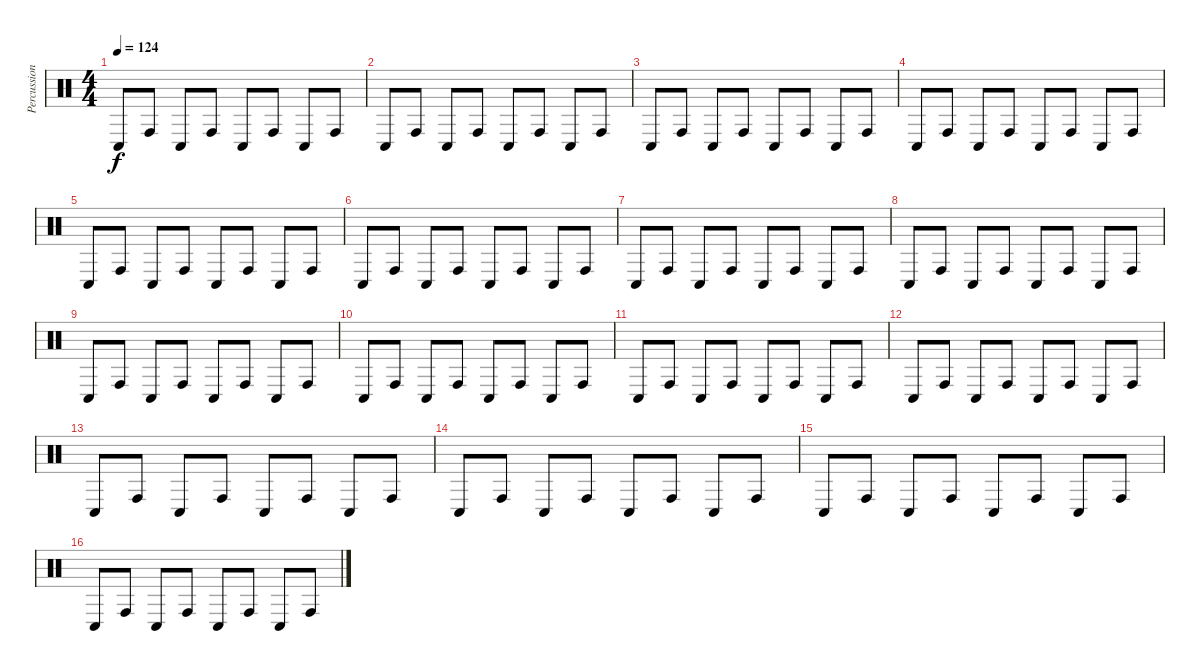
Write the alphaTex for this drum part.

\track ("Percussion" "Percussion") {instrument percussion}
\staff {score}
\articulation defaults
\ts (4 4)
\tempo 124
\clef neutral
\ks c "Conga low (hit)".8{dy f volume 10} "Conga high (hit)".8 "Conga low (hit)".8 "Conga high (hit)".8 "Conga low (hit)".8 "Conga high (hit)".8 "Conga low (hit)".8 "Conga high (hit)".8
|
"Conga low (hit)".8{volume 11} "Conga high (hit)".8 "Conga low (hit)".8 "Conga high (hit)".8 "Conga low (hit)".8 "Conga high (hit)".8 "Conga low (hit)".8 "Conga high (hit)".8 |
"Conga low (hit)".8{volume 10} "Conga high (hit)".8 "Conga low (hit)".8 "Conga high (hit)".8 "Conga low (hit)".8 "Conga high (hit)".8 "Conga low (hit)".8 "Conga high (hit)".8 |
"Conga low (hit)".8{volume 10} "Conga high (hit)".8 "Conga low (hit)".8 "Conga high (hit)".8 "Conga low (hit)".8 "Conga high (hit)".8 "Conga low (hit)".8 "Conga high (hit)".8 |
"Conga low (hit)".8{volume 10} "Conga high (hit)".8 "Conga low (hit)".8 "Conga high (hit)".8 "Conga low (hit)".8 "Conga high (hit)".8 "Conga low (hit)".8 "Conga high (hit)".8 |
"Conga low (hit)".8{volume 10} "Conga high (hit)".8 "Conga low (hit)".8 "Conga high (hit)".8 "Conga low (hit)".8 "Conga high (hit)".8 "Conga low (hit)".8 "Conga high (hit)".8 |
"Conga low (hit)".8{volume 10} "Conga high (hit)".8 "Conga low (hit)".8 "Conga high (hit)".8 "Conga low (hit)".8 "Conga high (hit)".8 "Conga low (hit)".8 "Conga high (hit)".8 |
"Conga low (hit)".8{volume 10} "Conga high (hit)".8 "Conga low (hit)".8 "Conga high (hit)".8 "Conga low (hit)".8 "Conga high (hit)".8 "Conga low (hit)".8 "Conga high (hit)".8 |
"Conga low (hit)".8{volume 6} "Conga high (hit)".8 "Conga low (hit)".8 "Conga high (hit)".8 "Conga low (hit)".8 "Conga high (hit)".8 "Conga low (hit)".8 "Conga high (hit)".8 |
"Conga low (hit)".8{volume 6} "Conga high (hit)".8 "Conga low (hit)".8 "Conga high (hit)".8 "Conga low (hit)".8 "Conga high (hit)".8 "Conga low (hit)".8 "Conga high (hit)".8 |
"Conga low (hit)".8{volume 6} "Conga high (hit)".8 "Conga low (hit)".8 "Conga high (hit)".8 "Conga low (hit)".8 "Conga high (hit)".8 "Conga low (hit)".8 "Conga high (hit)".8 |
"Conga low (hit)".8{volume 6} "Conga high (hit)".8 "Conga low (hit)".8 "Conga high (hit)".8 "Conga low (hit)".8 "Conga high (hit)".8 "Conga low (hit)".8 "Conga high (hit)".8 |
"Conga low (hit)".8{volume 6} "Conga high (hit)".8 "Conga low (hit)".8 "Conga high (hit)".8 "Conga low (hit)".8 "Conga high (hit)".8 "Conga low (hit)".8 "Conga high (hit)".8 |
"Conga low (hit)".8{volume 6} "Conga high (hit)".8 "Conga low (hit)".8 "Conga high (hit)".8 "Conga low (hit)".8 "Conga high (hit)".8 "Conga low (hit)".8 "Conga high (hit)".8 |
"Conga low (hit)".8{volume 6} "Conga high (hit)".8 "Conga low (hit)".8 "Conga high (hit)".8 "Conga low (hit)".8 "Conga high (hit)".8 "Conga low (hit)".8 "Conga high (hit)".8 |
"Conga low (hit)".8{volume 6} "Conga high (hit)".8 "Conga low (hit)".8 "Conga high (hit)".8 "Conga low (hit)".8 "Conga high (hit)".8 "Conga low (hit)".8 "Conga high (hit)".8
